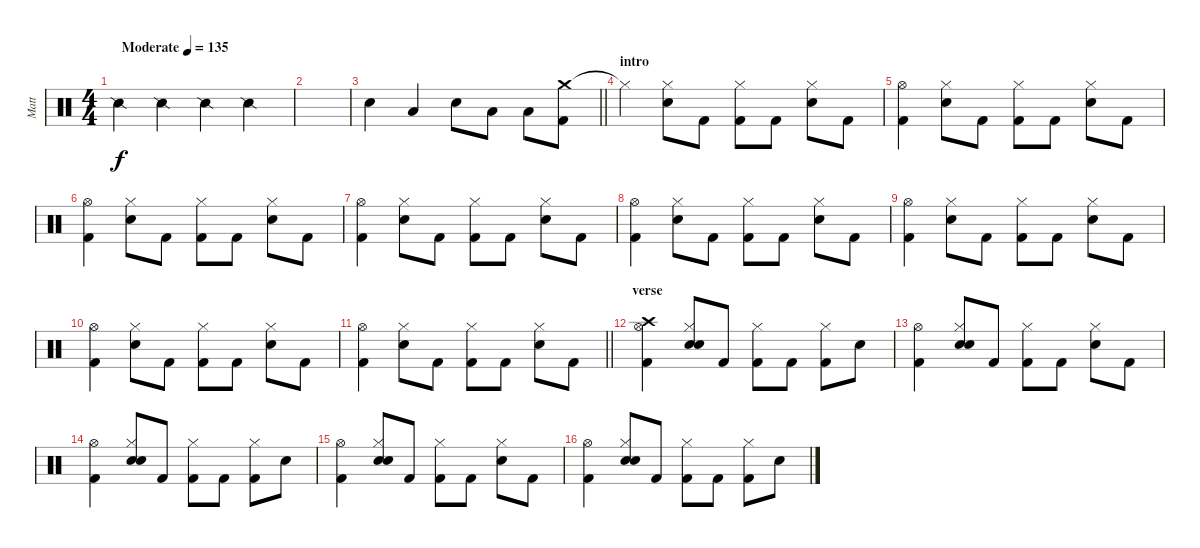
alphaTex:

\track ("Matt" "Matt") {instrument percussion}
\staff {score}
\articulation defaults
\ts (4 4)
\tempo (135 "Moderate")
\clef neutral
\ks c "Snare (side stick) 2".4{dy f} "Snare (side stick) 2".4 "Snare (side stick) 2".4 "Snare (side stick) 2".4
|
|
\barLineRight lightlight "Snare (hit) 2".4 "Low Tom (hit)".4 "Snare (hit) 2".8 "Low Tom (hit)".8 "Low Floor Tom (hit)".8
("Crash medium (hit)" "Kick (hit) 2").8 |
\section ("" "intro")
"Hi-Hat (closed)"{t}.4 ("Hi-Hat (closed)" "Snare (hit) 2").8 "Kick (hit) 2".8 ("Hi-Hat (closed)" "Kick (hit) 2").8 "Kick (hit) 2".8 ("Hi-Hat (closed)" "Snare (hit) 2").8 "Kick (hit) 2".8 |
("Hi-Hat (open)" "Kick (hit) 2").4 ("Hi-Hat (closed)" "Snare (hit) 2").8 "Kick (hit) 2".8 ("Hi-Hat (closed)" "Kick (hit) 2").8 "Kick (hit) 2".8 ("Hi-Hat (closed)" "Snare (hit) 2").8 "Kick (hit) 2".8 |
("Hi-Hat (open)" "Kick (hit) 2").4 ("Hi-Hat (closed)" "Snare (hit) 2").8 "Kick (hit) 2".8 ("Hi-Hat (closed)" "Kick (hit) 2").8 "Kick (hit) 2".8 ("Hi-Hat (closed)" "Snare (hit) 2").8 "Kick (hit) 2".8 |
("Hi-Hat (open)" "Kick (hit) 2").4 ("Hi-Hat (closed)" "Snare (hit) 2").8 "Kick (hit) 2".8 ("Hi-Hat (closed)" "Kick (hit) 2").8 "Kick (hit) 2".8 ("Hi-Hat (closed)" "Snare (hit) 2").8 "Kick (hit) 2".8 |
("Hi-Hat (open)" "Kick (hit) 2").4 ("Hi-Hat (closed)" "Snare (hit) 2").8 "Kick (hit) 2".8 ("Hi-Hat (closed)" "Kick (hit) 2").8 "Kick (hit) 2".8 ("Hi-Hat (closed)" "Snare (hit) 2").8 "Kick (hit) 2".8 |
("Hi-Hat (open)" "Kick (hit) 2").4 ("Hi-Hat (closed)" "Snare (hit) 2").8 "Kick (hit) 2".8 ("Hi-Hat (closed)" "Kick (hit) 2").8 "Kick (hit) 2".8 ("Hi-Hat (closed)" "Snare (hit) 2").8 "Kick (hit) 2".8 |
("Hi-Hat (open)" "Kick (hit) 2").4 ("Hi-Hat (closed)" "Snare (hit) 2").8 "Kick (hit) 2".8 ("Hi-Hat (closed)" "Kick (hit) 2").8 "Kick (hit) 2".8 ("Hi-Hat (closed)" "Snare (hit) 2").8 "Kick (hit) 2".8 |
\barLineRight lightlight
("Hi-Hat (open)" "Kick (hit) 2").4 ("Hi-Hat (closed)" "Snare (hit) 2").8 "Kick (hit) 2".8 ("Hi-Hat (closed)" "Kick (hit) 2").8 "Kick (hit) 2".8 ("Hi-Hat (closed)" "Snare (hit) 2").8 "Kick (hit) 2".8 |
\section ("" "verse")
("Crash high (hit)" "Hi-Hat (open)" "Kick (hit) 2").4 ("Hand Clap (hit)" "Hi-Hat (closed)" "Snare (hit) 2").8 "Kick (hit) 2".8 ("Hi-Hat (closed)" "Kick (hit) 2").8 "Kick (hit) 2".8 ("Hi-Hat (closed)" "Kick (hit) 2").8 "Snare (hit) 2".8 |
("Hi-Hat (open)" "Kick (hit) 2").4 ("Hand Clap (hit)" "Hi-Hat (closed)" "Snare (hit) 2").8 "Kick (hit) 2".8 ("Hi-Hat (closed)" "Kick (hit) 2").8 "Kick (hit) 2".8 ("Hi-Hat (closed)" "Snare (hit) 2").8 "Kick (hit) 2".8 |
("Hi-Hat (open)" "Kick (hit) 2").4 ("Hand Clap (hit)" "Hi-Hat (closed)" "Snare (hit) 2").8 "Kick (hit) 2".8 ("Hi-Hat (closed)" "Kick (hit) 2").8 "Kick (hit) 2".8 ("Hi-Hat (closed)" "Kick (hit) 2").8 "Snare (hit) 2".8 |
("Hi-Hat (open)" "Kick (hit) 2").4 ("Hand Clap (hit)" "Hi-Hat (closed)" "Snare (hit) 2").8 "Kick (hit) 2".8 ("Hi-Hat (closed)" "Kick (hit) 2").8 "Kick (hit) 2".8 ("Hi-Hat (closed)" "Snare (hit) 2").8 "Kick (hit) 2".8 |
("Hi-Hat (open)" "Kick (hit) 2").4 ("Hand Clap (hit)" "Hi-Hat (closed)" "Snare (hit) 2").8 "Kick (hit) 2".8 ("Hi-Hat (closed)" "Kick (hit) 2").8 "Kick (hit) 2".8 ("Hi-Hat (closed)" "Kick (hit) 2").8 "Snare (hit) 2".8
